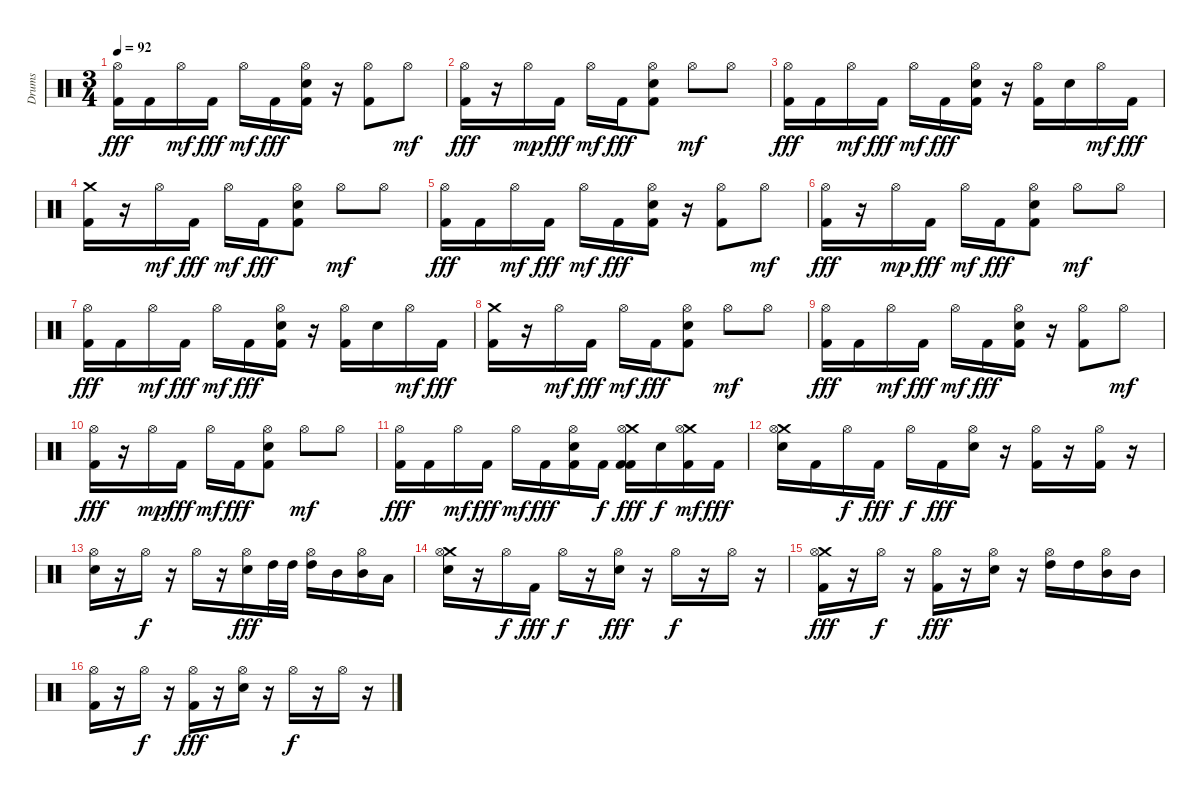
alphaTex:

\track ("Drums" "Drums") {instrument percussion}
\staff {score}
\articulation defaults
\ts (3 4)
\tempo 92
\clef neutral
\ks c
("Hi-Hat (open)" "Kick (hit) 2").16{dy fff} "Kick (hit) 2".16 "Hi-Hat (open)".16{dy mf} "Kick (hit) 2".16{dy fff} "Hi-Hat (open)".16{dy mf} "Kick (hit) 2".16{dy fff} ("Hi-Hat (open)" "Snare (hit) 2" "Kick (hit) 2").16 r.16 ("Hi-Hat (open)" "Kick (hit) 2").8 "Hi-Hat (open)".8{dy mf} |
("Hi-Hat (open)" "Kick (hit) 2").16{dy fff} r.16 "Hi-Hat (open)".16{dy mp} "Kick (hit) 2".16{dy fff} "Hi-Hat (open)".16{dy mf} "Kick (hit) 2".16{dy fff} ("Hi-Hat (open)" "Snare (hit) 2" "Kick (hit) 2").8 "Hi-Hat (open)".8{dy mf} "Hi-Hat (open)".8 |
("Hi-Hat (open)" "Kick (hit) 2").16{dy fff} "Kick (hit) 2".16 "Hi-Hat (open)".16{dy mf} "Kick (hit) 2".16{dy fff} "Hi-Hat (open)".16{dy mf} "Kick (hit) 2".16{dy fff} ("Hi-Hat (open)" "Snare (hit) 2" "Kick (hit) 2").16 r.16 ("Hi-Hat (open)" "Kick (hit) 2").16 "Snare (hit) 2".16 "Hi-Hat (open)".16{dy mf} "Kick (hit) 2".16{dy fff} |
("Crash medium (hit)" "Kick (hit) 2").16 r.16 "Hi-Hat (open)".16{dy mf} "Kick (hit) 2".16{dy fff} "Hi-Hat (open)".16{dy mf} "Kick (hit) 2".16{dy fff} ("Hi-Hat (open)" "Snare (hit) 2" "Kick (hit) 2").8 "Hi-Hat (open)".8{dy mf} "Hi-Hat (open)".8 |
("Hi-Hat (open)" "Kick (hit) 2").16{dy fff} "Kick (hit) 2".16 "Hi-Hat (open)".16{dy mf} "Kick (hit) 2".16{dy fff} "Hi-Hat (open)".16{dy mf} "Kick (hit) 2".16{dy fff} ("Hi-Hat (open)" "Snare (hit) 2" "Kick (hit) 2").16 r.16 ("Hi-Hat (open)" "Kick (hit) 2").8 "Hi-Hat (open)".8{dy mf} |
("Hi-Hat (open)" "Kick (hit) 2").16{dy fff} r.16 "Hi-Hat (open)".16{dy mp} "Kick (hit) 2".16{dy fff} "Hi-Hat (open)".16{dy mf} "Kick (hit) 2".16{dy fff} ("Hi-Hat (open)" "Snare (hit) 2" "Kick (hit) 2").8 "Hi-Hat (open)".8{dy mf} "Hi-Hat (open)".8 |
("Hi-Hat (open)" "Kick (hit) 2").16{dy fff} "Kick (hit) 2".16 "Hi-Hat (open)".16{dy mf} "Kick (hit) 2".16{dy fff} "Hi-Hat (open)".16{dy mf} "Kick (hit) 2".16{dy fff} ("Hi-Hat (open)" "Snare (hit) 2" "Kick (hit) 2").16 r.16 ("Hi-Hat (open)" "Kick (hit) 2").16 "Snare (hit) 2".16 "Hi-Hat (open)".16{dy mf} "Kick (hit) 2".16{dy fff} |
("Crash medium (hit)" "Kick (hit) 2").16 r.16 "Hi-Hat (open)".16{dy mf} "Kick (hit) 2".16{dy fff} "Hi-Hat (open)".16{dy mf} "Kick (hit) 2".16{dy fff} ("Hi-Hat (open)" "Snare (hit) 2" "Kick (hit) 2").8 "Hi-Hat (open)".8{dy mf} "Hi-Hat (open)".8 |
("Hi-Hat (open)" "Kick (hit) 2").16{dy fff} "Kick (hit) 2".16 "Hi-Hat (open)".16{dy mf} "Kick (hit) 2".16{dy fff} "Hi-Hat (open)".16{dy mf} "Kick (hit) 2".16{dy fff} ("Hi-Hat (open)" "Snare (hit) 2" "Kick (hit) 2").16 r.16 ("Hi-Hat (open)" "Kick (hit) 2").8 "Hi-Hat (open)".8{dy mf} |
("Hi-Hat (open)" "Kick (hit) 2").16{dy fff} r.16 "Hi-Hat (open)".16{dy mp} "Kick (hit) 2".16{dy fff} "Hi-Hat (open)".16{dy mf} "Kick (hit) 2".16{dy fff} ("Hi-Hat (open)" "Snare (hit) 2" "Kick (hit) 2").8 "Hi-Hat (open)".8{dy mf} "Hi-Hat (open)".8 |
("Hi-Hat (open)" "Kick (hit) 2").16{dy fff} "Kick (hit) 2".16 "Hi-Hat (open)".16{dy mf} "Kick (hit) 2".16{dy fff} "Hi-Hat (open)".16{dy mf} "Kick (hit) 2".16{dy fff} ("Hi-Hat (open)" "Snare (hit) 2" "Kick (hit) 2").16 "Kick (hit) 2".16{dy f} ("Crash medium (hit)" "Hi-Hat (open)" "Kick (hit) 2" "Kick (hit) 2").16{dy fff} "Snare (hit) 2".16{dy f} ("Crash medium (hit)" "Hi-Hat (open)" "Kick (hit) 2").16{dy mf} "Kick (hit) 2".16{dy fff} |
("Crash medium (hit)" "Hi-Hat (open)" "Snare (hit) 2").16 "Kick (hit) 2".16 "Hi-Hat (open)".16{dy f} "Kick (hit) 2".16{dy fff} "Hi-Hat (open)".16{dy f} "Kick (hit) 2".16{dy fff} ("Hi-Hat (open)" "Snare (hit) 2").16 r.16 ("Hi-Hat (open)" "Kick (hit) 2").16 r.16 ("Hi-Hat (open)" "Kick (hit) 2").16 r.16 |
("Hi-Hat (open)" "Snare (hit) 2").16 r.16 "Hi-Hat (open)".16{dy f} r.16 "Hi-Hat (open)".16 r.16 ("Hi-Hat (open)" "Snare (hit) 2").16{dy fff} "High Tom (hit)".32 "High Tom (hit)".32 ("Hi-Hat (open)" "High Tom (hit)").16 "Mid Tom (hit)".16 ("Hi-Hat (open)" "Mid Tom (hit)").16 "Low Tom (hit)".16 |
("Crash medium (hit)" "Hi-Hat (open)" "Snare (hit) 2").16 r.16 "Hi-Hat (open)".16{dy f} "Kick (hit) 2".16{dy fff} "Hi-Hat (open)".16{dy f} r.16 ("Hi-Hat (open)" "Snare (hit) 2").16{dy fff} r.16 "Hi-Hat (open)".16{dy f} r.16 "Hi-Hat (open)".16 r.16 |
("Crash medium (hit)" "Hi-Hat (open)" "Kick (hit) 2").16{dy fff} r.16 "Hi-Hat (open)".16{dy f} r.16 ("Hi-Hat (open)" "Kick (hit) 2").16{dy fff} r.16 ("Hi-Hat (open)" "Snare (hit) 2").16 r.16 ("Hi-Hat (open)" "High Tom (hit)").16 "High Tom (hit)".16 ("Hi-Hat (open)" "Mid Tom (hit)").16 "Mid Tom (hit)".16 |
("Hi-Hat (open)" "Kick (hit) 2").16 r.16 "Hi-Hat (open)".16{dy f} r.16 ("Hi-Hat (open)" "Kick (hit) 2").16{dy fff} r.16 ("Hi-Hat (open)" "Snare (hit) 2").16 r.16 "Hi-Hat (open)".16{dy f} r.16 "Hi-Hat (open)".16 r.16
